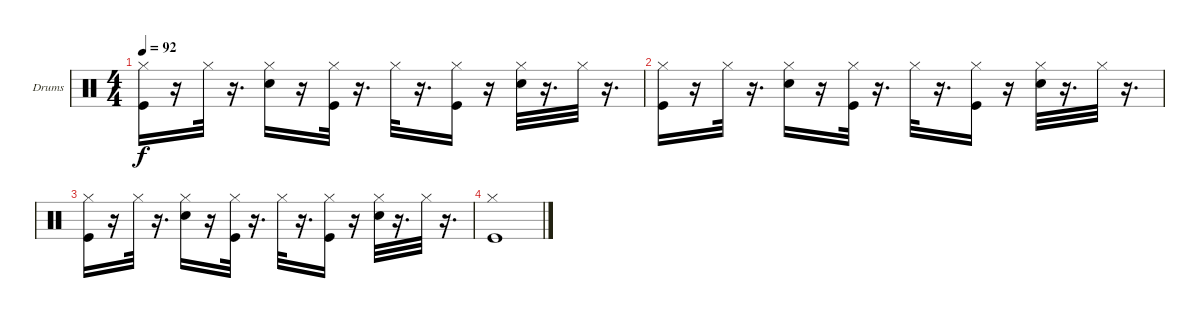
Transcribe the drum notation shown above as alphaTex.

\bracketExtendMode groupsimilarinstruments
\firstSystemTrackNameOrientation horizontal
\otherSystemsTrackNameOrientation horizontal
\track ("Drumkit" "Drums") {instrument percussion}
\staff {score}
\articulation defaults
\ts (4 4)
\tempo 92
\clef neutral
\ks c
("Kick (hit)" "Hi-Hat (closed)").16{dy f} r.16 "Hi-Hat (closed)".32 r.16{d} ("Snare (hit) 2" "Hi-Hat (closed)").16 r.16 ("Kick (hit)" "Hi-Hat (closed)").32 r.16{d} "Hi-Hat (closed)".32 r.16{d} ("Kick (hit)" "Hi-Hat (closed)").16 r.16 ("Snare (hit) 2" "Hi-Hat (closed)").32 r.16{d} "Hi-Hat (closed)".32 r.16{d} |
("Kick (hit)" "Hi-Hat (closed)").16 r.16 "Hi-Hat (closed)".32 r.16{d} ("Snare (hit) 2" "Hi-Hat (closed)").16 r.16 ("Kick (hit)" "Hi-Hat (closed)").32 r.16{d} "Hi-Hat (closed)".32 r.16{d} ("Kick (hit)" "Hi-Hat (closed)").16 r.16 ("Snare (hit) 2" "Hi-Hat (closed)").32 r.16{d} "Hi-Hat (closed)".32 r.16{d} |
("Kick (hit)" "Hi-Hat (closed)").16 r.16 "Hi-Hat (closed)".32 r.16{d} ("Snare (hit) 2" "Hi-Hat (closed)").16 r.16 ("Kick (hit)" "Hi-Hat (closed)").32 r.16{d} "Hi-Hat (closed)".32 r.16{d} ("Kick (hit)" "Hi-Hat (closed)").16 r.16 ("Snare (hit) 2" "Hi-Hat (closed)").32 r.16{d} "Hi-Hat (closed)".32 r.16{d} |
("Kick (hit)" "Hi-Hat (closed)").1
